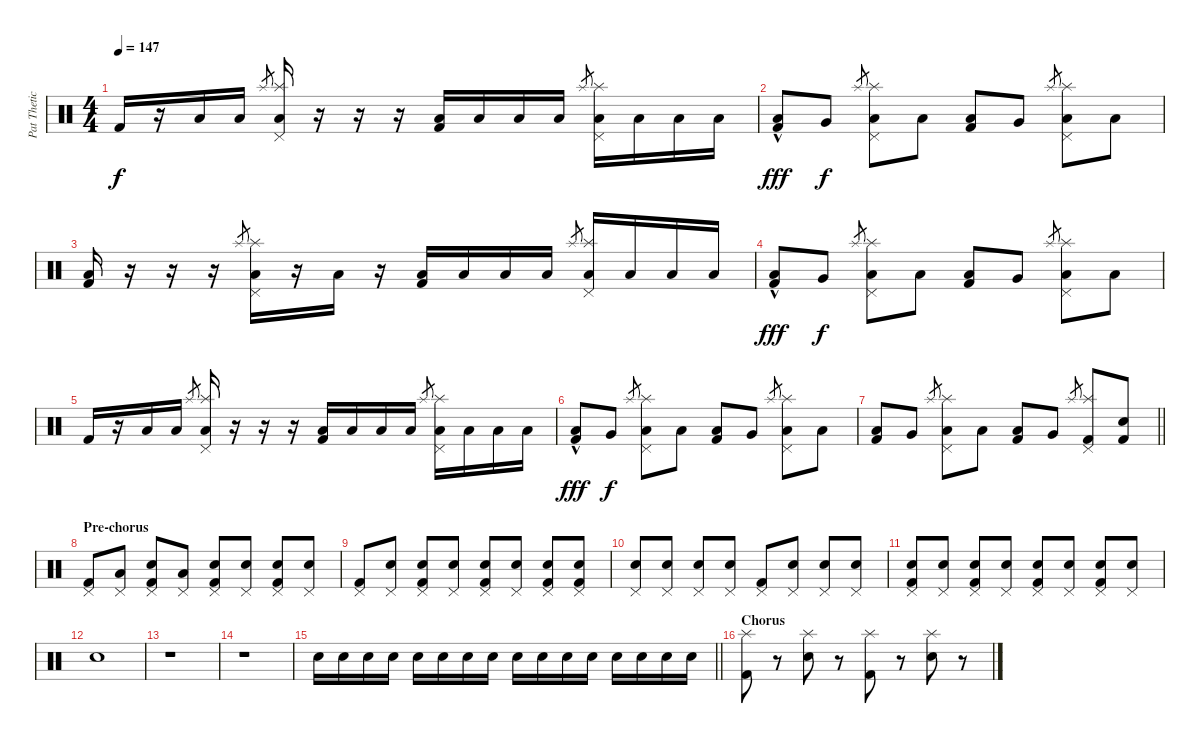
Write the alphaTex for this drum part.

\track ("Pat Thetic Drums" "Pat Thetic") {instrument percussion}
\staff {score}
\articulation defaults
\ts (4 4)
\tempo 147
\clef neutral
\ks c "Kick (hit) 2".16{dy f}
r.16 "Low Floor Tom (hit)".16 "Low Floor Tom (hit)".16 "Splash (hit)".8{gr} ("Splash (hit)" "Pedal Hi-Hat (hit)" "Low Floor Tom (hit)").16 r.16 r.16 r.16 ("Kick (hit) 2" "Low Floor Tom (hit)").16 "Low Floor Tom (hit)".16 "Low Floor Tom (hit)".16 "Low Floor Tom (hit)".16 "Splash (hit)".8{gr} ("Splash (hit)" "Pedal Hi-Hat (hit)" "Low Tom (hit)").16 "Low Tom (hit)".16 "Low Tom (hit)".16 "Low Tom (hit)".16 |
("Kick (hit) 2"{hac} "Low Floor Tom (hit)").8{dy fff} "Very Low Tom (hit)".8{dy f} "Splash (hit)".8{gr} ("Splash (hit)" "Pedal Hi-Hat (hit)" "Low Tom (hit)").8 "Low Tom (hit)".8 ("Kick (hit) 2" "Low Floor Tom (hit)").8 "Very Low Tom (hit)".8 "Splash (hit)".8{gr} ("Splash (hit)" "Pedal Hi-Hat (hit)" "Low Tom (hit)").8 "Low Tom (hit)".8 |
("Kick (hit) 2" "Low Tom (hit)").16 r.16 r.16 r.16 "Splash (hit)".8{gr} ("Splash (hit)" "Pedal Hi-Hat (hit)" "Low Tom (hit)").16 r.16 "Low Tom (hit)".16 r.16 ("Kick (hit) 2" "Low Floor Tom (hit)").16 "Low Floor Tom (hit)".16 "Low Floor Tom (hit)".16 "Low Floor Tom (hit)".16 "Splash (hit)".8{gr} ("Splash (hit)" "Pedal Hi-Hat (hit)" "Low Floor Tom (hit)").16 "Low Floor Tom (hit)".16 "Low Floor Tom (hit)".16 "Low Floor Tom (hit)".16 |
("Kick (hit) 2"{hac} "Low Floor Tom (hit)").8{dy fff} "Very Low Tom (hit)".8{dy f} "Splash (hit)".8{gr} ("Splash (hit)" "Pedal Hi-Hat (hit)" "Low Tom (hit)").8 "Low Tom (hit)".8 ("Kick (hit) 2" "Low Floor Tom (hit)").8 "Very Low Tom (hit)".8 "Splash (hit)".8{gr} ("Splash (hit)" "Pedal Hi-Hat (hit)" "Low Tom (hit)").8 "Low Tom (hit)".8 |
"Kick (hit) 2".16 r.16 "Low Floor Tom (hit)".16 "Low Floor Tom (hit)".16 "Splash (hit)".8{gr} ("Splash (hit)" "Pedal Hi-Hat (hit)" "Low Floor Tom (hit)").16 r.16 r.16 r.16 ("Kick (hit) 2" "Low Floor Tom (hit)").16 "Low Floor Tom (hit)".16 "Low Floor Tom (hit)".16 "Low Floor Tom (hit)".16 "Splash (hit)".8{gr} ("Splash (hit)" "Pedal Hi-Hat (hit)" "Low Tom (hit)").16 "Low Tom (hit)".16 "Low Tom (hit)".16 "Low Tom (hit)".16 |
("Kick (hit) 2"{hac} "Low Floor Tom (hit)").8{dy fff} "Very Low Tom (hit)".8{dy f} "Splash (hit)".8{gr} ("Splash (hit)" "Pedal Hi-Hat (hit)" "Low Tom (hit)").8 "Low Tom (hit)".8 ("Kick (hit) 2" "Low Floor Tom (hit)").8 "Very Low Tom (hit)".8 "Splash (hit)".8{gr} ("Splash (hit)" "Pedal Hi-Hat (hit)" "Low Tom (hit)").8 "Low Tom (hit)".8 |
\barLineRight lightlight
("Kick (hit) 2" "Low Floor Tom (hit)").8 "Very Low Tom (hit)".8 "Splash (hit)".8{gr} ("Splash (hit)" "Pedal Hi-Hat (hit)" "Low Tom (hit)").8 "Low Tom (hit)".8 ("Kick (hit) 2" "Low Floor Tom (hit)").8 "Very Low Tom (hit)".8 "Splash (hit)".8{gr} ("Splash (hit)" "Pedal Hi-Hat (hit)" "Kick (hit) 2").8 ("Snare (hit) 2" "Kick (hit) 2").8 |
\section ("" "Pre-chorus")
("Pedal Hi-Hat (hit)" "Kick (hit) 2").8 ("Pedal Hi-Hat (hit)" "Low Tom (hit)").8 ("Pedal Hi-Hat (hit)" "Kick (hit) 2" "Snare (hit) 2").8 ("Pedal Hi-Hat (hit)" "Low Tom (hit)").8 ("Pedal Hi-Hat (hit)" "Kick (hit) 2" "Snare (hit) 2").8 ("Pedal Hi-Hat (hit)" "Snare (hit) 2").8 ("Pedal Hi-Hat (hit)" "Kick (hit) 2" "Snare (hit) 2").8 ("Pedal Hi-Hat (hit)" "Snare (hit) 2").8 |
("Pedal Hi-Hat (hit)" "Kick (hit) 2").8 ("Pedal Hi-Hat (hit)" "Snare (hit) 2").8 ("Pedal Hi-Hat (hit)" "Kick (hit) 2" "Snare (hit) 2").8 ("Pedal Hi-Hat (hit)" "Snare (hit) 2").8 ("Pedal Hi-Hat (hit)" "Kick (hit) 2" "Snare (hit) 2").8 ("Pedal Hi-Hat (hit)" "Snare (hit) 2").8 ("Pedal Hi-Hat (hit)" "Kick (hit) 2" "Snare (hit) 2").8 ("Pedal Hi-Hat (hit)" "Kick (hit) 2" "Snare (hit) 2").8 |
("Pedal Hi-Hat (hit)" "Snare (hit) 2").8 ("Pedal Hi-Hat (hit)" "Snare (hit) 2").8 ("Pedal Hi-Hat (hit)" "Snare (hit) 2").8 ("Pedal Hi-Hat (hit)" "Snare (hit) 2").8 ("Pedal Hi-Hat (hit)" "Kick (hit) 2").8 ("Pedal Hi-Hat (hit)" "Snare (hit) 2").8 ("Pedal Hi-Hat (hit)" "Snare (hit) 2").8 ("Pedal Hi-Hat (hit)" "Snare (hit) 2").8 |
("Pedal Hi-Hat (hit)" "Kick (hit) 2" "Snare (hit) 2").8 ("Pedal Hi-Hat (hit)" "Snare (hit) 2").8 ("Pedal Hi-Hat (hit)" "Kick (hit) 2" "Snare (hit) 2").8 ("Pedal Hi-Hat (hit)" "Snare (hit) 2").8 ("Pedal Hi-Hat (hit)" "Kick (hit) 2" "Snare (hit) 2").8 ("Pedal Hi-Hat (hit)" "Snare (hit) 2").8 ("Pedal Hi-Hat (hit)" "Kick (hit) 2" "Snare (hit) 2").8 ("Pedal Hi-Hat (hit)" "Snare (hit) 2").8 |
"Snare (hit) 2".1 |
r.1 |
r.1 |
\barLineRight lightlight "Snare (hit) 2".16 "Snare (hit) 2".16 "Snare (hit) 2".16 "Snare (hit) 2".16 "Snare (hit) 2".16 "Snare (hit) 2".16 "Snare (hit) 2".16 "Snare (hit) 2".16 "Snare (hit) 2".16 "Snare (hit) 2".16 "Snare (hit) 2".16 "Snare (hit) 2".16 "Snare (hit) 2".16 "Snare (hit) 2".16 "Snare (hit) 2".16 "Snare (hit) 2".16
|
\section ("" "Chorus")
("Splash (hit)" "Kick (hit) 2").8 r.8 ("Splash (hit)" "Snare (hit) 2").8 r.8 ("Splash (hit)" "Kick (hit) 2").8 r.8 ("Splash (hit)" "Snare (hit) 2").8 r.8
